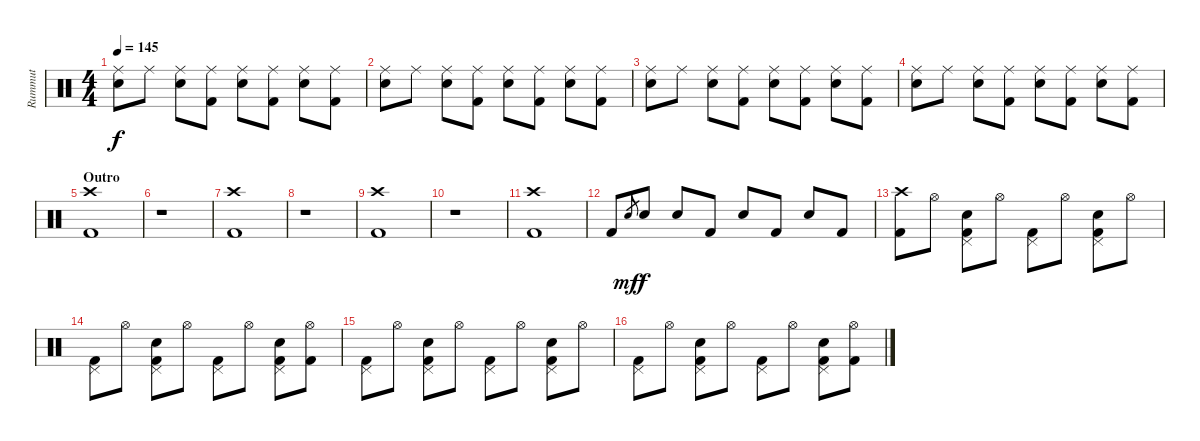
\track ("Rummut" "Rummut") {instrument percussion}
\staff {score}
\articulation defaults
\ts (4 4)
\tempo 145
\clef neutral
\ks c
("Ride (middle)" "Electric Snare (hit)").8{dy f} "Ride (middle)".8 ("Ride (middle)" "Electric Snare (hit)").8 ("Ride (middle)" "Kick (hit) 2").8 ("Ride (middle)" "Electric Snare (hit)").8 ("Ride (middle)" "Kick (hit) 2").8 ("Ride (middle)" "Electric Snare (hit)").8 ("Ride (middle)" "Kick (hit) 2").8 |
("Ride (middle)" "Electric Snare (hit)").8 "Ride (middle)".8 ("Ride (middle)" "Electric Snare (hit)").8 ("Ride (middle)" "Kick (hit) 2").8 ("Ride (middle)" "Electric Snare (hit)").8 ("Ride (middle)" "Kick (hit) 2").8 ("Ride (middle)" "Electric Snare (hit)").8 ("Ride (middle)" "Kick (hit) 2").8 |
("Ride (middle)" "Electric Snare (hit)").8 "Ride (middle)".8 ("Ride (middle)" "Electric Snare (hit)").8 ("Ride (middle)" "Kick (hit) 2").8 ("Ride (middle)" "Electric Snare (hit)").8 ("Ride (middle)" "Kick (hit) 2").8 ("Ride (middle)" "Electric Snare (hit)").8 ("Ride (middle)" "Kick (hit) 2").8 |
("Ride (middle)" "Electric Snare (hit)").8 "Ride (middle)".8 ("Ride (middle)" "Electric Snare (hit)").8 ("Ride (middle)" "Kick (hit) 2").8 ("Ride (middle)" "Electric Snare (hit)").8 ("Ride (middle)" "Kick (hit) 2").8 ("Ride (middle)" "Electric Snare (hit)").8 ("Ride (middle)" "Kick (hit) 2").8 |
\section ("" "Outro")
("Crash high (hit)" "Kick (hit) 2").1 |
r.1 |
("Crash high (hit)" "Kick (hit) 2").1 |
r.1 |
("Crash high (hit)" "Kick (hit) 2").1 |
r.1 |
("Crash high (hit)" "Kick (hit) 2").1 |
"Kick (hit) 2".8 "Electric Snare (hit)".8{gr dy mf} "Electric Snare (hit)".8{dy f} "Electric Snare (hit)".8 "Kick (hit) 2".8 "Electric Snare (hit)".8 "Kick (hit) 2".8 "Electric Snare (hit)".8 "Kick (hit) 2".8 |
("Crash high (hit)" "Kick (hit) 2").8 "Hi-Hat (open)".8 ("Pedal Hi-Hat (hit)" "Electric Snare (hit)" "Kick (hit) 2").8 "Hi-Hat (open)".8 ("Pedal Hi-Hat (hit)" "Kick (hit) 2").8 "Hi-Hat (open)".8 ("Pedal Hi-Hat (hit)" "Electric Snare (hit)" "Kick (hit) 2").8 "Hi-Hat (open)".8 |
("Pedal Hi-Hat (hit)" "Kick (hit) 2").8 "Hi-Hat (open)".8 ("Pedal Hi-Hat (hit)" "Electric Snare (hit)" "Kick (hit) 2").8 "Hi-Hat (open)".8 ("Pedal Hi-Hat (hit)" "Kick (hit) 2").8 "Hi-Hat (open)".8 ("Pedal Hi-Hat (hit)" "Electric Snare (hit)" "Kick (hit) 2").8 ("Hi-Hat (open)" "Kick (hit) 2").8 |
("Pedal Hi-Hat (hit)" "Kick (hit) 2").8 "Hi-Hat (open)".8 ("Pedal Hi-Hat (hit)" "Electric Snare (hit)" "Kick (hit) 2").8 "Hi-Hat (open)".8 ("Pedal Hi-Hat (hit)" "Kick (hit) 2").8 "Hi-Hat (open)".8 ("Pedal Hi-Hat (hit)" "Electric Snare (hit)" "Kick (hit) 2").8 "Hi-Hat (open)".8 |
("Pedal Hi-Hat (hit)" "Kick (hit) 2").8 "Hi-Hat (open)".8 ("Pedal Hi-Hat (hit)" "Electric Snare (hit)" "Kick (hit) 2").8 "Hi-Hat (open)".8 ("Pedal Hi-Hat (hit)" "Kick (hit) 2").8 "Hi-Hat (open)".8 ("Pedal Hi-Hat (hit)" "Electric Snare (hit)" "Kick (hit) 2").8 ("Hi-Hat (open)" "Kick (hit) 2").8
